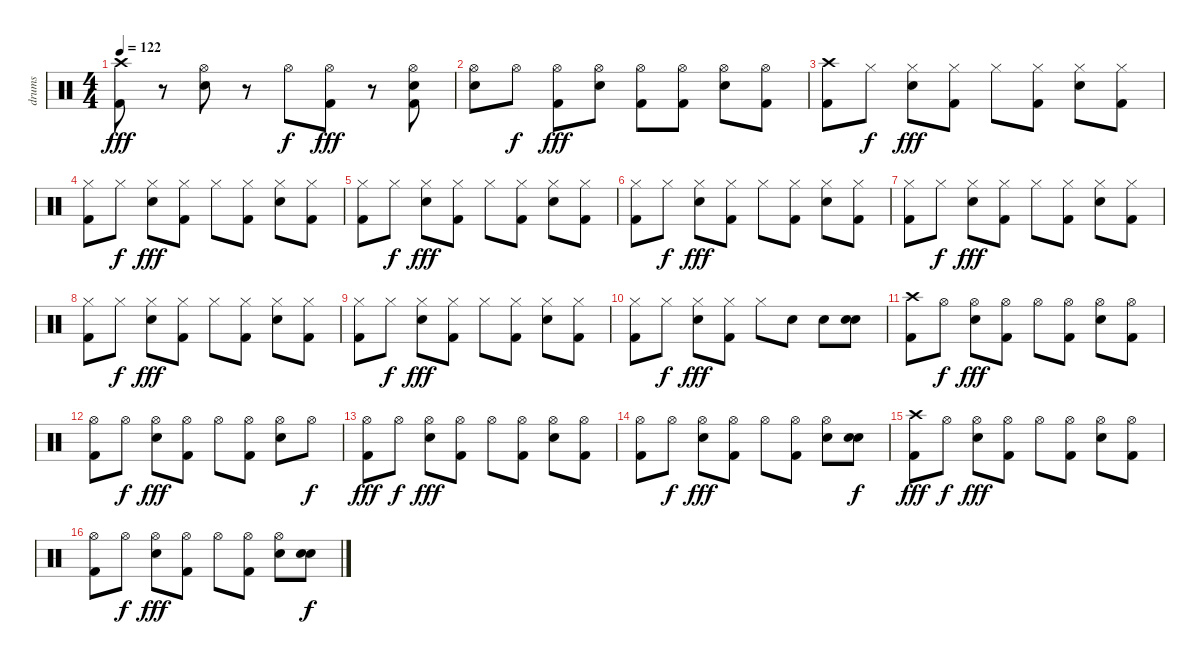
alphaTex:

\track ("drums" "drums") {instrument percussion}
\staff {score}
\articulation defaults
\ts (4 4)
\tempo 122
\clef neutral
\ks c
("Kick (hit) 2" "Crash high (hit)").8{dy fff} r.8 ("Electric Snare (hit)" "Hi-Hat (open)").8 r.8 "Hi-Hat (open)".8{dy f} ("Kick (hit) 2" "Hi-Hat (open)").8{dy fff} r.8 ("Kick (hit) 2" "Electric Snare (hit)" "Hi-Hat (open)").8 |
("Hi-Hat (open)" "Electric Snare (hit)").8 "Hi-Hat (open)".8{dy f} ("Hi-Hat (open)" "Kick (hit) 2").8{dy fff} ("Hi-Hat (open)" "Electric Snare (hit)").8 ("Kick (hit) 2" "Hi-Hat (open)").8 ("Hi-Hat (open)" "Kick (hit) 2").8 ("Hi-Hat (open)" "Electric Snare (hit)").8 ("Hi-Hat (open)" "Kick (hit) 2").8 |
("Crash high (hit)" "Kick (hit) 2").8 "Hi-Hat (closed)".8{dy f} ("Hi-Hat (closed)" "Electric Snare (hit)").8{dy fff} ("Kick (hit) 2" "Hi-Hat (closed)").8 "Hi-Hat (closed)".8 ("Kick (hit) 2" "Hi-Hat (closed)").8 ("Hi-Hat (closed)" "Electric Snare (hit)").8 ("Kick (hit) 2" "Hi-Hat (closed)").8 |
("Hi-Hat (closed)" "Kick (hit) 2").8 "Hi-Hat (closed)".8{dy f} ("Electric Snare (hit)" "Hi-Hat (closed)").8{dy fff} ("Kick (hit) 2" "Hi-Hat (closed)").8 "Hi-Hat (closed)".8 ("Hi-Hat (closed)" "Kick (hit) 2").8 ("Hi-Hat (closed)" "Electric Snare (hit)").8 ("Kick (hit) 2" "Hi-Hat (closed)").8 |
("Hi-Hat (closed)" "Kick (hit) 2").8 "Hi-Hat (closed)".8{dy f} ("Hi-Hat (closed)" "Electric Snare (hit)").8{dy fff} ("Hi-Hat (closed)" "Kick (hit) 2").8 "Hi-Hat (closed)".8 ("Kick (hit) 2" "Hi-Hat (closed)").8 ("Electric Snare (hit)" "Hi-Hat (closed)").8 ("Hi-Hat (closed)" "Kick (hit) 2").8 |
("Kick (hit) 2" "Hi-Hat (closed)").8 "Hi-Hat (closed)".8{dy f} ("Hi-Hat (closed)" "Electric Snare (hit)").8{dy fff} ("Kick (hit) 2" "Hi-Hat (closed)").8 "Hi-Hat (closed)".8 ("Hi-Hat (closed)" "Kick (hit) 2").8 ("Hi-Hat (closed)" "Electric Snare (hit)").8 ("Kick (hit) 2" "Hi-Hat (closed)").8 |
("Hi-Hat (closed)" "Kick (hit) 2").8 "Hi-Hat (closed)".8{dy f} ("Hi-Hat (closed)" "Electric Snare (hit)").8{dy fff} ("Kick (hit) 2" "Hi-Hat (closed)").8 "Hi-Hat (closed)".8 ("Kick (hit) 2" "Hi-Hat (closed)").8 ("Hi-Hat (closed)" "Electric Snare (hit)").8 ("Hi-Hat (closed)" "Kick (hit) 2").8 |
("Kick (hit) 2" "Hi-Hat (closed)").8 "Hi-Hat (closed)".8{dy f} ("Electric Snare (hit)" "Hi-Hat (closed)").8{dy fff} ("Hi-Hat (closed)" "Kick (hit) 2").8 "Hi-Hat (closed)".8 ("Kick (hit) 2" "Hi-Hat (closed)").8 ("Hi-Hat (closed)" "Electric Snare (hit)").8 ("Kick (hit) 2" "Hi-Hat (closed)").8 |
("Hi-Hat (closed)" "Kick (hit) 2").8 "Hi-Hat (closed)".8{dy f} ("Hi-Hat (closed)" "Electric Snare (hit)").8{dy fff} ("Kick (hit) 2" "Hi-Hat (closed)").8 "Hi-Hat (closed)".8 ("Hi-Hat (closed)" "Kick (hit) 2").8 ("Electric Snare (hit)" "Hi-Hat (closed)").8 ("Hi-Hat (closed)" "Kick (hit) 2").8 |
("Hi-Hat (closed)" "Kick (hit) 2").8 "Hi-Hat (closed)".8{dy f} ("Hi-Hat (closed)" "Electric Snare (hit)").8{dy fff} ("Hi-Hat (closed)" "Kick (hit) 2").8 "Hi-Hat (closed)".8 "Electric Snare (hit)".8 "Electric Snare (hit)".8 ("Electric Snare (hit)" "Electric Snare (hit)").8 |
("Crash high (hit)" "Kick (hit) 2").8 "Hi-Hat (open)".8{dy f} ("Electric Snare (hit)" "Hi-Hat (open)").8{dy fff} ("Kick (hit) 2" "Hi-Hat (open)").8 "Hi-Hat (open)".8 ("Hi-Hat (open)" "Kick (hit) 2").8 ("Hi-Hat (open)" "Electric Snare (hit)").8 ("Kick (hit) 2" "Hi-Hat (open)").8 |
("Hi-Hat (open)" "Kick (hit) 2").8 "Hi-Hat (open)".8{dy f} ("Electric Snare (hit)" "Hi-Hat (open)").8{dy fff} ("Kick (hit) 2" "Hi-Hat (open)").8 "Hi-Hat (open)".8 ("Hi-Hat (open)" "Kick (hit) 2").8 ("Hi-Hat (open)" "Electric Snare (hit)").8 "Hi-Hat (open)".8{dy f} |
("Kick (hit) 2" "Hi-Hat (open)").8{dy fff} "Hi-Hat (open)".8{dy f} ("Hi-Hat (open)" "Electric Snare (hit)").8{dy fff} ("Kick (hit) 2" "Hi-Hat (open)").8 "Hi-Hat (open)".8 ("Hi-Hat (open)" "Kick (hit) 2").8 ("Electric Snare (hit)" "Hi-Hat (open)").8 ("Kick (hit) 2" "Hi-Hat (open)").8 |
("Hi-Hat (open)" "Kick (hit) 2").8 "Hi-Hat (open)".8{dy f} ("Electric Snare (hit)" "Hi-Hat (open)").8{dy fff} ("Kick (hit) 2" "Hi-Hat (open)").8 "Hi-Hat (open)".8 ("Hi-Hat (open)" "Kick (hit) 2").8 ("Hi-Hat (open)" "Electric Snare (hit)").8 ("Electric Snare (hit)" "Electric Snare (hit)").8{dy f} |
("Kick (hit) 2" "Crash high (hit)").8{dy fff} "Hi-Hat (open)".8{dy f} ("Electric Snare (hit)" "Hi-Hat (open)").8{dy fff} ("Kick (hit) 2" "Hi-Hat (open)").8 "Hi-Hat (open)".8 ("Hi-Hat (open)" "Kick (hit) 2").8 ("Hi-Hat (open)" "Electric Snare (hit)").8 ("Kick (hit) 2" "Hi-Hat (open)").8 |
("Hi-Hat (open)" "Kick (hit) 2").8 "Hi-Hat (open)".8{dy f} ("Electric Snare (hit)" "Hi-Hat (open)").8{dy fff} ("Kick (hit) 2" "Hi-Hat (open)").8 "Hi-Hat (open)".8 ("Kick (hit) 2" "Hi-Hat (open)").8 ("Electric Snare (hit)" "Hi-Hat (open)").8 ("Electric Snare (hit)" "Electric Snare (hit)").8{dy f}
